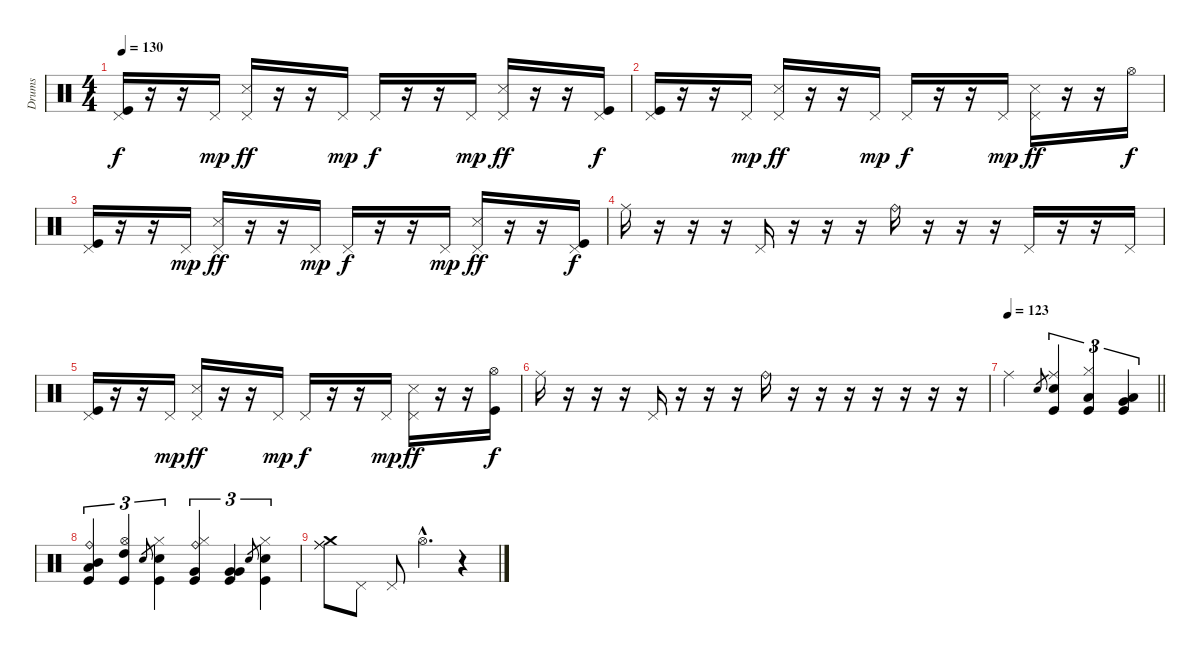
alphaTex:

\track ("Drums" "Drums") {instrument percussion}
\staff {score}
\articulation defaults
\ts (4 4)
\tempo 130
\clef neutral
\ks c
("Pedal Hi-Hat (hit)" "Kick (hit)").16{dy f} r.16 r.16 "Pedal Hi-Hat (hit)".16{dy mp} ("Pedal Hi-Hat (hit)" "Snare (side stick) 3").16{dy ff} r.16 r.16 "Pedal Hi-Hat (hit)".16{dy mp} "Pedal Hi-Hat (hit)".16{dy f} r.16 r.16 "Pedal Hi-Hat (hit)".16{dy mp} ("Pedal Hi-Hat (hit)" "Snare (side stick) 3").16{dy ff} r.16 r.16 ("Pedal Hi-Hat (hit)" "Kick (hit)").16{dy f} |
("Pedal Hi-Hat (hit)" "Kick (hit)").16 r.16 r.16 "Pedal Hi-Hat (hit)".16{dy mp} ("Pedal Hi-Hat (hit)" "Snare (side stick) 3").16{dy ff} r.16 r.16 "Pedal Hi-Hat (hit)".16{dy mp} "Pedal Hi-Hat (hit)".16{dy f} r.16 r.16 "Pedal Hi-Hat (hit)".16{dy mp} ("Pedal Hi-Hat (hit)" "Snare (side stick) 3").16{dy ff} r.16 r.16 "Hi-Hat (open)".16{dy f} |
("Pedal Hi-Hat (hit)" "Kick (hit)").16 r.16 r.16 "Pedal Hi-Hat (hit)".16{dy mp} ("Pedal Hi-Hat (hit)" "Snare (side stick) 3").16{dy ff} r.16 r.16 "Pedal Hi-Hat (hit)".16{dy mp} "Pedal Hi-Hat (hit)".16{dy f} r.16 r.16 "Pedal Hi-Hat (hit)".16{dy mp} ("Pedal Hi-Hat (hit)" "Snare (side stick) 3").16{dy ff} r.16 r.16 ("Pedal Hi-Hat (hit)" "Kick (hit)").16{dy f} |
"Ride (middle)".16 r.16 r.16 r.16 "Pedal Hi-Hat (hit)".16 r.16 r.16 r.16 "Ride (bell)".16 r.16 r.16 r.16 "Pedal Hi-Hat (hit)".16 r.16 r.16 "Pedal Hi-Hat (hit)".16 |
("Pedal Hi-Hat (hit)" "Kick (hit)").16 r.16 r.16 "Pedal Hi-Hat (hit)".16{dy mp} ("Pedal Hi-Hat (hit)" "Snare (side stick) 3").16{dy ff} r.16 r.16 "Pedal Hi-Hat (hit)".16{dy mp} "Pedal Hi-Hat (hit)".16{dy f} r.16 r.16 "Pedal Hi-Hat (hit)".16{dy mp} ("Pedal Hi-Hat (hit)" "Snare (side stick) 3").16{dy ff} r.16 r.16 ("Hi-Hat (open)" "Kick (hit)").16{dy f} |
"Ride (middle)".16 r.16 r.16 r.16 "Pedal Hi-Hat (hit)".16 r.16 r.16 r.16 "Ride (bell)".16 r.16 r.16 r.16 r.16 r.16 r.16 r.16 |
\tempo 123
\barLineRight lightlight "Ride (middle)".2 "Electric Snare (hit)".8{gr}
("Ride (middle)" "Electric Snare (hit)" "Kick (hit)").4{tu (3 2)} ("Hi-Hat (closed)" "Low Tom (hit)" "Kick (hit)").4{tu (3 2)} ("Low Floor Tom (hit)" "Very Low Tom (hit)" "Kick (hit)").4{tu (3 2)} |
("Ride (bell)" "Mid Tom (hit)" "Low Floor Tom (hit)" "Kick (hit)").4{tu (3 2)} ("High Tom (hit)" "Hi-Hat (open)" "Kick (hit)").4{tu (3 2)} "Electric Snare (hit)".8{gr} ("Electric Snare (hit)" "Hi-Hat (closed)" "Kick (hit)").4{tu (3 2)} ("Ride (bell)" "Very Low Tom (hit)" "Hi-Hat (closed)" "Kick (hit)").4{tu (3 2)} ("Very Low Tom (hit)" "Very Low Tom (hit)" "Kick (hit)").4{tu (3 2)} "Electric Snare (hit)".8{gr} ("Hi-Hat (closed)" "Electric Snare (hit)" "Kick (hit)").4{tu (3 2)} |
("Crash medium (hit)" "Ride (middle)" "Ride (middle)").8 "Pedal Hi-Hat (hit)".8 "Pedal Hi-Hat (hit)".8 "Hi-Hat (open)"{hac}.4{d} r.4
